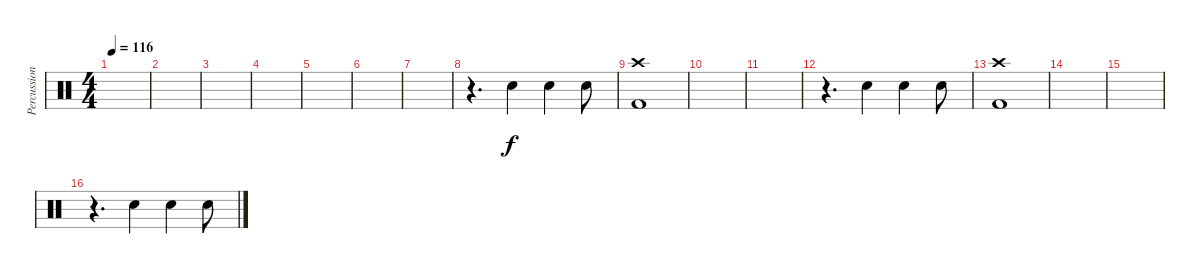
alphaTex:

\track ("Percussion" "Percussion") {instrument percussion}
\staff {score}
\articulation defaults
\ts (4 4)
\tempo 116
\clef neutral
\ks c
|
|
|
|
|
|
|
r.4{d} "Electric Snare (hit)".4 "Electric Snare (hit)".4 "Electric Snare (hit)".8 |
("Kick (hit) 2" "Crash high (hit)").1 |
|
|
r.4{d} "Electric Snare (hit)".4 "Electric Snare (hit)".4 "Electric Snare (hit)".8 |
("Kick (hit) 2" "Crash high (hit)").1 |
|
|
r.4{d} "Electric Snare (hit)".4 "Electric Snare (hit)".4 "Electric Snare (hit)".8
